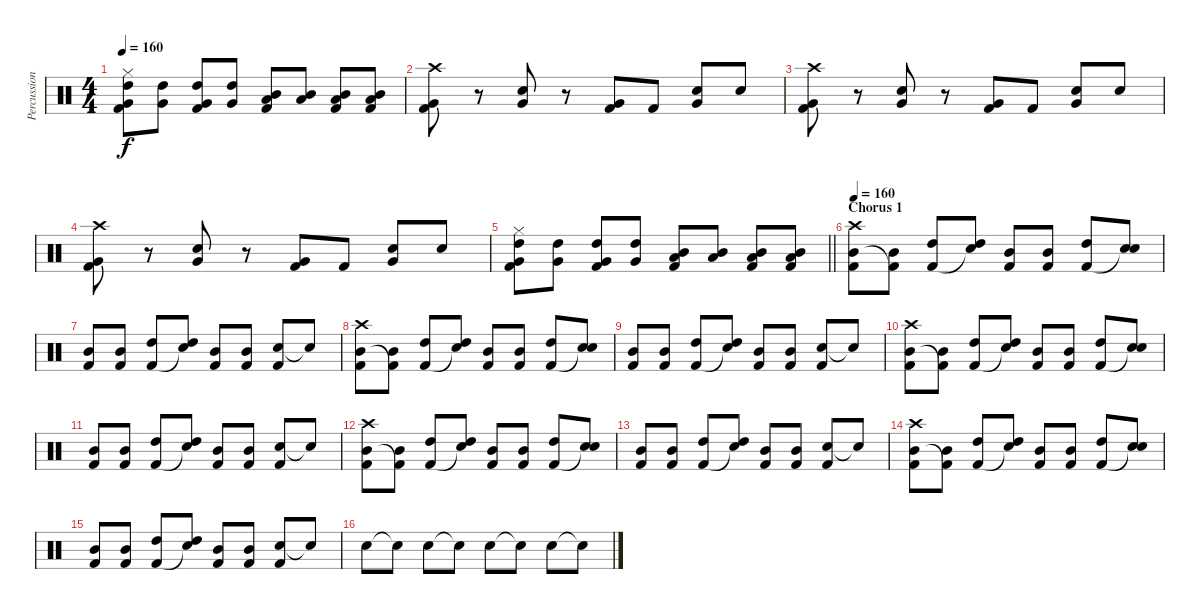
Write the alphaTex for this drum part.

\track ("Percussion" "Percussion") {instrument percussion}
\staff {score}
\articulation defaults
\ts (4 4)
\tempo 160
\clef neutral
\ks c
("Hi-Hat (closed)" "High Tom (hit)" "Very Low Tom (hit)" "Kick (hit) 2").8{dy f} ("High Tom (hit)" "Very Low Tom (hit)").8 ("High Tom (hit)" "Very Low Tom (hit)" "Kick (hit) 2").8 ("High Tom (hit)" "Very Low Tom (hit)").8 ("Mid Tom (hit)" "Low Floor Tom (hit)" "Kick (hit) 2").8 ("Mid Tom (hit)" "Low Floor Tom (hit)").8 ("Mid Tom (hit)" "Low Floor Tom (hit)" "Kick (hit) 2").8 ("Mid Tom (hit)" "Low Floor Tom (hit)" "Kick (hit) 2").8 |
("Crash high (hit)" "Very Low Tom (hit)" "Kick (hit) 2").8 r.8 ("Snare (hit) 2" "Very Low Tom (hit)").8 r.8 ("Very Low Tom (hit)" "Kick (hit) 2").8 "Kick (hit) 2".8 ("Snare (hit) 2" "Very Low Tom (hit)").8 "Snare (hit) 2".8 |
("Crash high (hit)" "Very Low Tom (hit)" "Kick (hit) 2").8 r.8 ("Snare (hit) 2" "Very Low Tom (hit)").8 r.8 ("Very Low Tom (hit)" "Kick (hit) 2").8 "Kick (hit) 2".8 ("Snare (hit) 2" "Very Low Tom (hit)").8 "Snare (hit) 2".8 |
("Crash high (hit)" "Very Low Tom (hit)" "Kick (hit) 2").8 r.8 ("Snare (hit) 2" "Very Low Tom (hit)").8 r.8 ("Very Low Tom (hit)" "Kick (hit) 2").8 "Kick (hit) 2".8 ("Snare (hit) 2" "Very Low Tom (hit)").8 "Snare (hit) 2".8 |
\barLineRight lightlight
("Hi-Hat (closed)" "High Tom (hit)" "Very Low Tom (hit)" "Kick (hit) 2").8 ("High Tom (hit)" "Very Low Tom (hit)").8 ("High Tom (hit)" "Very Low Tom (hit)" "Kick (hit) 2").8 ("High Tom (hit)" "Very Low Tom (hit)").8 ("Mid Tom (hit)" "Low Floor Tom (hit)" "Kick (hit) 2").8 ("Mid Tom (hit)" "Low Floor Tom (hit)").8 ("Mid Tom (hit)" "Low Floor Tom (hit)" "Kick (hit) 2").8 ("Mid Tom (hit)" "Low Floor Tom (hit)" "Kick (hit) 2").8 |
\section ("" "Chorus 1")
\tempo 160
("Crash high (hit)" "Mid Tom (hit)" "Kick (hit) 2").8 ("Mid Tom (hit)" "Kick (hit) 2"{t}).8 ("High Tom (hit)" "Kick (hit) 2").8 ("High Tom (hit)" "Snare (hit)"{t}).8 ("Mid Tom (hit)" "Kick (hit) 2").8 ("Mid Tom (hit)" "Kick (hit) 2").8 ("High Tom (hit)" "Kick (hit) 2").8 ("Snare (hit) 2" "Snare (hit)"{t}).8 |
("Mid Tom (hit)" "Kick (hit) 2").8 ("Mid Tom (hit)" "Kick (hit) 2").8 ("High Tom (hit)" "Kick (hit) 2").8 ("High Tom (hit)" "Snare (hit)"{t}).8 ("Mid Tom (hit)" "Kick (hit) 2").8 ("Mid Tom (hit)" "Kick (hit) 2").8 ("Snare (hit) 2" "Kick (hit) 2").8 "Snare (hit)"{t}.8 |
("Crash high (hit)" "Mid Tom (hit)" "Kick (hit) 2").8 ("Mid Tom (hit)" "Kick (hit) 2"{t}).8 ("High Tom (hit)" "Kick (hit) 2").8 ("High Tom (hit)" "Snare (hit)"{t}).8 ("Mid Tom (hit)" "Kick (hit) 2").8 ("Mid Tom (hit)" "Kick (hit) 2").8 ("High Tom (hit)" "Kick (hit) 2").8 ("Snare (hit) 2" "Snare (hit)"{t}).8 |
("Mid Tom (hit)" "Kick (hit) 2").8 ("Mid Tom (hit)" "Kick (hit) 2").8 ("High Tom (hit)" "Kick (hit) 2").8 ("High Tom (hit)" "Snare (hit)"{t}).8 ("Mid Tom (hit)" "Kick (hit) 2").8 ("Mid Tom (hit)" "Kick (hit) 2").8 ("Snare (hit) 2" "Kick (hit) 2").8 "Snare (hit)"{t}.8 |
("Crash high (hit)" "Mid Tom (hit)" "Kick (hit) 2").8 ("Mid Tom (hit)" "Kick (hit) 2"{t}).8 ("High Tom (hit)" "Kick (hit) 2").8 ("High Tom (hit)" "Snare (hit)"{t}).8 ("Mid Tom (hit)" "Kick (hit) 2").8 ("Mid Tom (hit)" "Kick (hit) 2").8 ("High Tom (hit)" "Kick (hit) 2").8 ("Snare (hit) 2" "Snare (hit)"{t}).8 |
("Mid Tom (hit)" "Kick (hit) 2").8 ("Mid Tom (hit)" "Kick (hit) 2").8 ("High Tom (hit)" "Kick (hit) 2").8 ("High Tom (hit)" "Snare (hit)"{t}).8 ("Mid Tom (hit)" "Kick (hit) 2").8 ("Mid Tom (hit)" "Kick (hit) 2").8 ("Snare (hit) 2" "Kick (hit) 2").8 "Snare (hit)"{t}.8 |
("Crash high (hit)" "Mid Tom (hit)" "Kick (hit) 2").8 ("Mid Tom (hit)" "Kick (hit) 2"{t}).8 ("High Tom (hit)" "Kick (hit) 2").8 ("High Tom (hit)" "Snare (hit)"{t}).8 ("Mid Tom (hit)" "Kick (hit) 2").8 ("Mid Tom (hit)" "Kick (hit) 2").8 ("High Tom (hit)" "Kick (hit) 2").8 ("Snare (hit) 2" "Snare (hit)"{t}).8 |
("Mid Tom (hit)" "Kick (hit) 2").8 ("Mid Tom (hit)" "Kick (hit) 2").8 ("High Tom (hit)" "Kick (hit) 2").8 ("High Tom (hit)" "Snare (hit)"{t}).8 ("Mid Tom (hit)" "Kick (hit) 2").8 ("Mid Tom (hit)" "Kick (hit) 2").8 ("Snare (hit) 2" "Kick (hit) 2").8 "Snare (hit)"{t}.8 |
("Crash high (hit)" "Mid Tom (hit)" "Kick (hit) 2").8 ("Mid Tom (hit)" "Kick (hit) 2"{t}).8 ("High Tom (hit)" "Kick (hit) 2").8 ("High Tom (hit)" "Snare (hit)"{t}).8 ("Mid Tom (hit)" "Kick (hit) 2").8 ("Mid Tom (hit)" "Kick (hit) 2").8 ("High Tom (hit)" "Kick (hit) 2").8 ("Snare (hit) 2" "Snare (hit)"{t}).8 |
("Mid Tom (hit)" "Kick (hit) 2").8 ("Mid Tom (hit)" "Kick (hit) 2").8 ("High Tom (hit)" "Kick (hit) 2").8 ("High Tom (hit)" "Snare (hit)"{t}).8 ("Mid Tom (hit)" "Kick (hit) 2").8 ("Mid Tom (hit)" "Kick (hit) 2").8 ("Snare (hit) 2" "Kick (hit) 2").8 "Snare (hit)"{t}.8 |
"Snare (hit) 2".8 "Snare (hit)"{t}.8 "Snare (hit) 2".8 "Snare (hit)"{t}.8 "Snare (hit) 2".8 "Snare (hit)"{t}.8 "Snare (hit) 2".8 "Snare (hit)"{t}.8
